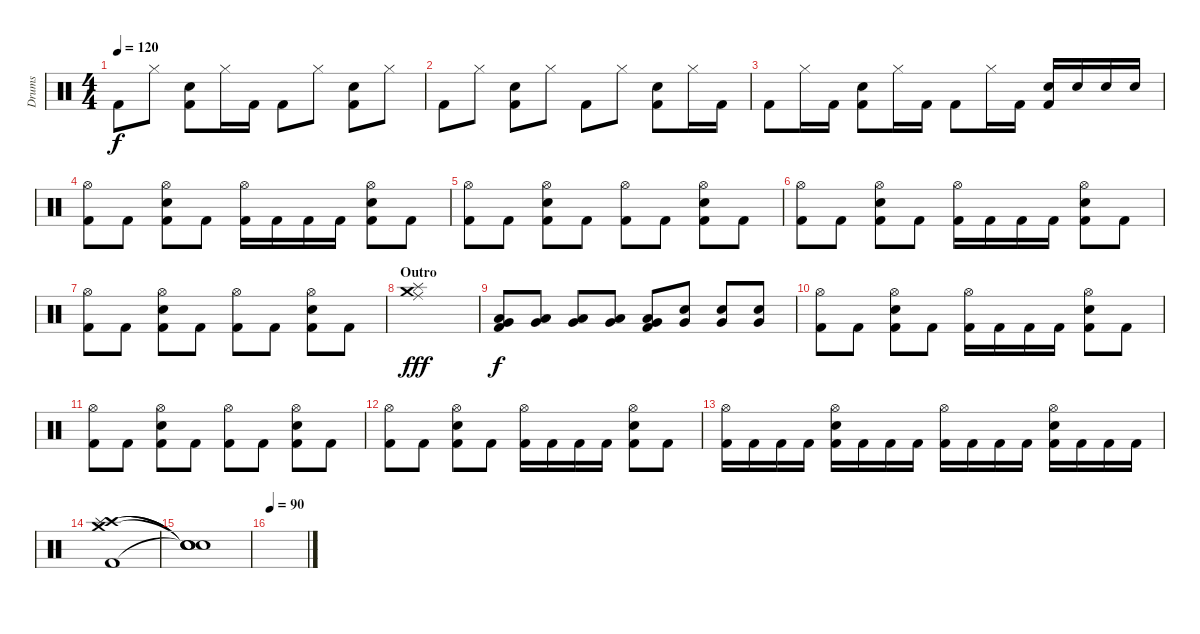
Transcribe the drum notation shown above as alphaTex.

\track ("Drums" "Drums") {instrument percussion}
\staff {score}
\articulation defaults
\ts (4 4)
\tempo 120
\clef neutral
\ks c "Kick (hit) 2".8{dy f} "Hi-Hat (closed)".8
("Snare (hit) 2" "Kick (hit) 2").8 "Hi-Hat (closed)".16 "Kick (hit) 2".16 "Kick (hit) 2".8 "Hi-Hat (closed)".8 ("Snare (hit) 2" "Kick (hit) 2").8 "Hi-Hat (closed)".8 |
"Kick (hit) 2".8 "Hi-Hat (closed)".8 ("Snare (hit) 2" "Kick (hit) 2").8 "Hi-Hat (closed)".8 "Kick (hit) 2".8 "Hi-Hat (closed)".8 ("Snare (hit) 2" "Kick (hit) 2").8 "Hi-Hat (closed)".16 "Kick (hit) 2".16 |
"Kick (hit) 2".8 "Hi-Hat (closed)".16 "Kick (hit) 2".16 ("Snare (hit) 2" "Kick (hit) 2").8 "Hi-Hat (closed)".16 "Kick (hit) 2".16 "Kick (hit) 2".8 "Hi-Hat (closed)".16 "Kick (hit) 2".16 ("Snare (hit) 2" "Kick (hit) 2").16 "Snare (hit) 2".16 "Snare (hit) 2".16 "Snare (hit) 2".16 |
("Hi-Hat (open)" "Kick (hit) 2").8 "Kick (hit) 2".8 ("Hi-Hat (open)" "Snare (hit) 2" "Kick (hit) 2").8 "Kick (hit) 2".8 ("Hi-Hat (open)" "Kick (hit) 2").16 "Kick (hit) 2".16 "Kick (hit) 2".16 "Kick (hit) 2".16 ("Hi-Hat (open)" "Snare (hit) 2" "Kick (hit) 2").8 "Kick (hit) 2".8 |
("Hi-Hat (open)" "Kick (hit) 2").8 "Kick (hit) 2".8 ("Hi-Hat (open)" "Snare (hit) 2" "Kick (hit) 2").8 "Kick (hit) 2".8 ("Hi-Hat (open)" "Kick (hit) 2").8 "Kick (hit) 2".8 ("Hi-Hat (open)" "Snare (hit) 2" "Kick (hit) 2").8 "Kick (hit) 2".8 |
("Hi-Hat (open)" "Kick (hit) 2").8 "Kick (hit) 2".8 ("Hi-Hat (open)" "Snare (hit) 2" "Kick (hit) 2").8 "Kick (hit) 2".8 ("Hi-Hat (open)" "Kick (hit) 2").16 "Kick (hit) 2".16 "Kick (hit) 2".16 "Kick (hit) 2".16 ("Hi-Hat (open)" "Snare (hit) 2" "Kick (hit) 2").8 "Kick (hit) 2".8 |
("Hi-Hat (open)" "Kick (hit) 2").8 "Kick (hit) 2".8 ("Hi-Hat (open)" "Snare (hit) 2" "Kick (hit) 2").8 "Kick (hit) 2".8 ("Hi-Hat (open)" "Kick (hit) 2").8 "Kick (hit) 2".8 ("Hi-Hat (open)" "Snare (hit) 2" "Kick (hit) 2").8 "Kick (hit) 2".8 |
\section ("" "Outro")
("Ride (middle)" "Splash (hit)" "Crash medium (hit)").1{dy fff} |
("Low Tom (hit)" "Very Low Tom (hit)" "Kick (hit) 2").8{dy f} ("Low Tom (hit)" "Very Low Tom (hit)").8 ("Low Tom (hit)" "Very Low Tom (hit)").8 ("Low Tom (hit)" "Very Low Tom (hit)").8 ("Low Tom (hit)" "Very Low Tom (hit)" "Kick (hit) 2").8 ("Snare (hit) 2" "Very Low Tom (hit)").8 ("Snare (hit) 2" "Very Low Tom (hit)").8 ("Snare (hit) 2" "Very Low Tom (hit)").8 |
("Hi-Hat (open)" "Kick (hit) 2").8 "Kick (hit) 2".8 ("Hi-Hat (open)" "Snare (hit) 2" "Kick (hit) 2").8 "Kick (hit) 2".8 ("Hi-Hat (open)" "Kick (hit) 2").16 "Kick (hit) 2".16 "Kick (hit) 2".16 "Kick (hit) 2".16 ("Hi-Hat (open)" "Snare (hit) 2" "Kick (hit) 2").8 "Kick (hit) 2".8 |
("Hi-Hat (open)" "Kick (hit) 2").8 "Kick (hit) 2".8 ("Hi-Hat (open)" "Snare (hit) 2" "Kick (hit) 2").8 "Kick (hit) 2".8 ("Hi-Hat (open)" "Kick (hit) 2").8 "Kick (hit) 2".8 ("Hi-Hat (open)" "Snare (hit) 2" "Kick (hit) 2").8 "Kick (hit) 2".8 |
("Hi-Hat (open)" "Kick (hit) 2").8 "Kick (hit) 2".8 ("Hi-Hat (open)" "Snare (hit) 2" "Kick (hit) 2").8 "Kick (hit) 2".8 ("Hi-Hat (open)" "Kick (hit) 2").16 "Kick (hit) 2".16 "Kick (hit) 2".16 "Kick (hit) 2".16 ("Hi-Hat (open)" "Snare (hit) 2" "Kick (hit) 2").8 "Kick (hit) 2".8 |
("Hi-Hat (open)" "Kick (hit) 2").16 "Kick (hit) 2".16 "Kick (hit) 2".16 "Kick (hit) 2".16 ("Hi-Hat (open)" "Snare (hit) 2" "Kick (hit) 2").16 "Kick (hit) 2".16 "Kick (hit) 2".16 "Kick (hit) 2".16 ("Hi-Hat (open)" "Kick (hit) 2").16 "Kick (hit) 2".16 "Kick (hit) 2".16 "Kick (hit) 2".16 ("Hi-Hat (open)" "Snare (hit) 2" "Kick (hit) 2").16 "Kick (hit) 2".16 "Kick (hit) 2".16 "Kick (hit) 2".16 |
("Crash medium (hit)" "Crash high (hit)" "Splash (hit)" "Kick (hit) 2").1 |
("Snare (hit)"{t} "Snare (hit)"{t} "Snare (hit)"{t} "Snare (hit)"{t}).1{volume 0} |
\tempo 90
